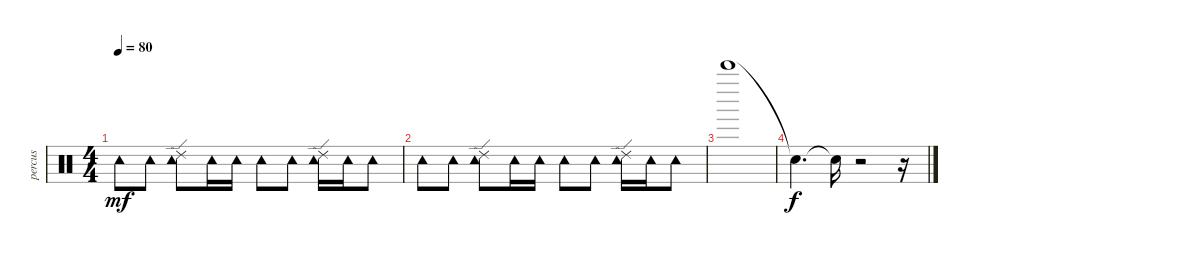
\track ("percus" "percus") {instrument percussion}
\staff {score}
\articulation defaults
\ts (4 4)
\tempo 80
\clef neutral
\ks c "Tambourine (hit)".8{dy mf} "Tambourine (hit)".8
("Tambourine (hit)" "Ride (edge) 2").8 "Tambourine (hit)".16 "Tambourine (hit)".16 "Tambourine (hit)".8 "Tambourine (hit)".8 ("Tambourine (hit)" "Ride (edge) 2").16 "Tambourine (hit)".16 "Tambourine (hit)".8 |
"Tambourine (hit)".8 "Tambourine (hit)".8 ("Tambourine (hit)" "Ride (edge) 2").8 "Tambourine (hit)".16 "Tambourine (hit)".16 "Tambourine (hit)".8 "Tambourine (hit)".8 ("Tambourine (hit)" "Ride (edge) 2").16 "Tambourine (hit)".16 "Tambourine (hit)".8 |
"Bell Tree (hit)".1 |
"Snare (hit)"{t}.4{d dy f} "Snare (hit)"{t}.16 r.2 r.16
